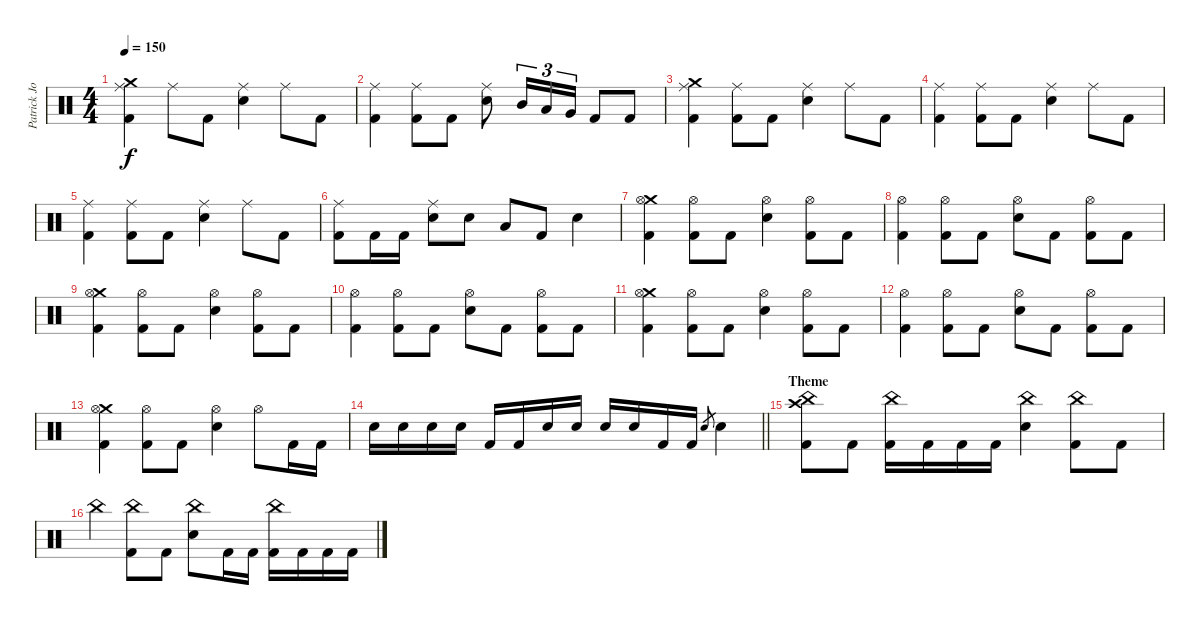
\track ("Patrick Johansson" "Patrick Jo") {instrument percussion}
\staff {score}
\articulation defaults
\ts (4 4)
\tempo 150
\clef neutral
\ks c
("Crash medium (hit)" "Ride (middle)" "Kick (hit) 2").4{dy f} "Ride (middle)".8 "Kick (hit) 2".8 ("Ride (middle)" "Snare (hit) 2").4 "Ride (middle)".8 "Kick (hit) 2".8 |
("Ride (middle)" "Kick (hit) 2").4 ("Ride (middle)" "Kick (hit) 2").8 "Kick (hit) 2".8 ("Ride (middle)" "Snare (hit) 2").8 "Mid Tom (hit)".16{tu (3 2)} "Low Tom (hit)".16{tu (3 2)} "Very Low Tom (hit)".16{tu (3 2)} "Kick (hit) 2".8 "Kick (hit) 2".8 |
("Crash medium (hit)" "Ride (middle)" "Kick (hit) 2").4 ("Ride (middle)" "Kick (hit) 2").8 "Kick (hit) 2".8 ("Ride (middle)" "Snare (hit) 2").4 "Ride (middle)".8 "Kick (hit) 2".8 |
("Ride (middle)" "Kick (hit) 2").4 ("Ride (middle)" "Kick (hit) 2").8 "Kick (hit) 2".8 ("Ride (middle)" "Snare (hit) 2").4 "Ride (middle)".8 "Kick (hit) 2".8 |
("Ride (middle)" "Kick (hit) 2").4 ("Ride (middle)" "Kick (hit) 2").8 "Kick (hit) 2".8 ("Ride (middle)" "Snare (hit) 2").4 "Ride (middle)".8 "Kick (hit) 2".8 |
("Ride (middle)" "Kick (hit) 2").8 "Kick (hit) 2".16 "Kick (hit) 2".16 ("Ride (middle)" "Snare (hit) 2").8 "Snare (hit) 2".8 "Low Tom (hit)".8 "Kick (hit) 2".8 "Snare (hit) 2".4 |
("Crash medium (hit)" "Hi-Hat (open)" "Kick (hit) 2").4 ("Hi-Hat (open)" "Kick (hit) 2").8 "Kick (hit) 2".8 ("Hi-Hat (open)" "Snare (hit) 2").4 ("Hi-Hat (open)" "Kick (hit) 2").8 "Kick (hit) 2".8 |
("Hi-Hat (open)" "Kick (hit) 2").4 ("Hi-Hat (open)" "Kick (hit) 2").8 "Kick (hit) 2".8 ("Hi-Hat (open)" "Snare (hit) 2").8 "Kick (hit) 2".8 ("Hi-Hat (open)" "Kick (hit) 2").8 "Kick (hit) 2".8 |
("Crash medium (hit)" "Hi-Hat (open)" "Kick (hit) 2").4 ("Hi-Hat (open)" "Kick (hit) 2").8 "Kick (hit) 2".8 ("Hi-Hat (open)" "Snare (hit) 2").4 ("Hi-Hat (open)" "Kick (hit) 2").8 "Kick (hit) 2".8 |
("Hi-Hat (open)" "Kick (hit) 2").4 ("Hi-Hat (open)" "Kick (hit) 2").8 "Kick (hit) 2".8 ("Hi-Hat (open)" "Snare (hit) 2").8 "Kick (hit) 2".8 ("Hi-Hat (open)" "Kick (hit) 2").8 "Kick (hit) 2".8 |
("Crash medium (hit)" "Hi-Hat (open)" "Kick (hit) 2").4 ("Hi-Hat (open)" "Kick (hit) 2").8 "Kick (hit) 2".8 ("Hi-Hat (open)" "Snare (hit) 2").4 ("Hi-Hat (open)" "Kick (hit) 2").8 "Kick (hit) 2".8 |
("Hi-Hat (open)" "Kick (hit) 2").4 ("Hi-Hat (open)" "Kick (hit) 2").8 "Kick (hit) 2".8 ("Hi-Hat (open)" "Snare (hit) 2").8 "Kick (hit) 2".8 ("Hi-Hat (open)" "Kick (hit) 2").8 "Kick (hit) 2".8 |
("Crash medium (hit)" "Hi-Hat (open)" "Kick (hit) 2").4 ("Hi-Hat (open)" "Kick (hit) 2").8 "Kick (hit) 2".8 ("Hi-Hat (open)" "Snare (hit) 2").4 "Hi-Hat (open)".8 "Kick (hit) 2".16 "Kick (hit) 2".16 |
\barLineRight lightlight "Snare (hit) 2".16 "Snare (hit) 2".16 "Snare (hit) 2".16 "Snare (hit) 2".16 "Kick (hit) 2".16 "Kick (hit) 2".16 "Snare (hit) 2".16 "Snare (hit) 2".16 "Snare (hit) 2".16 "Snare (hit) 2".16 "Kick (hit) 2".16 "Kick (hit) 2".16 "Snare (hit) 2".8{gr} "Snare (hit) 2".4
|
\section ("" "Theme")
("Crash high (hit)" "China (hit)" "Kick (hit) 2").8 "Kick (hit) 2".8 ("China (hit)" "Kick (hit) 2").16 "Kick (hit) 2".16 "Kick (hit) 2".16 "Kick (hit) 2".16 ("China (hit)" "Snare (hit) 2").4 ("China (hit)" "Kick (hit) 2").8 "Kick (hit) 2".8 |
"China (hit)".4 ("China (hit)" "Kick (hit) 2").8 "Kick (hit) 2".8 ("China (hit)" "Snare (hit) 2").8 "Kick (hit) 2".16 "Kick (hit) 2".16 ("China (hit)" "Kick (hit) 2").16 "Kick (hit) 2".16 "Kick (hit) 2".16 "Kick (hit) 2".16
